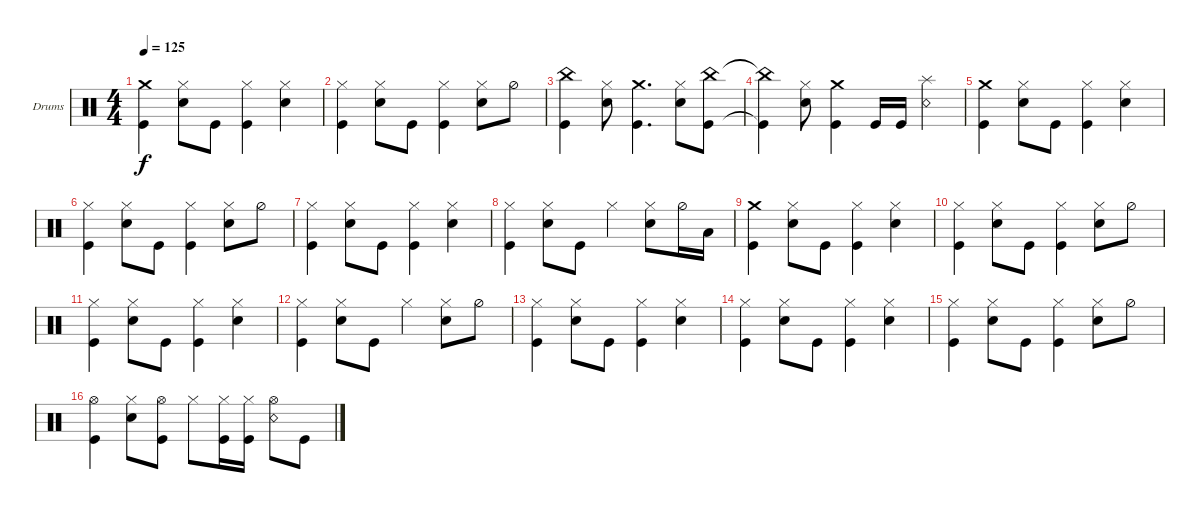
\bracketExtendMode groupsimilarinstruments
\firstSystemTrackNameOrientation horizontal
\otherSystemsTrackNameOrientation horizontal
\track ("Drumkit" "Drums") {instrument percussion}
\staff {score}
\articulation defaults
\ts (4 4)
\tempo 125
\clef neutral
\ks c
("Kick (hit)" "Crash medium (hit)").4{dy f} ("Snare (hit) 2" "Hi-Hat (closed)").8 "Kick (hit)".8 ("Hi-Hat (closed)" "Kick (hit)").4 ("Hi-Hat (closed)" "Snare (hit) 2").4 |
("Kick (hit)" "Hi-Hat (closed)").4 ("Snare (hit) 2" "Hi-Hat (closed)").8 "Kick (hit)".8 ("Hi-Hat (closed)" "Kick (hit)").4 ("Hi-Hat (closed)" "Snare (hit) 2").8 "Hi-Hat (half)".8 |
("Kick (hit)" "China (hit)").4 ("Snare (hit) 2" "Hi-Hat (closed)").8 ("Kick (hit)" "Crash medium (hit)").4{d} ("Hi-Hat (closed)" "Snare (hit) 2").8 ("Kick (hit)" "China (hit)").8 |
("Kick (hit)"{t} "China (hit)"{t}).4 ("Snare (hit) 2" "Hi-Hat (closed)").8 ("Kick (hit)" "Crash medium (hit)").4 "Kick (hit)".16 "Kick (hit)".16 ("Snare (rim shot)" "Splash (hit)").4 |
("Kick (hit)" "Crash medium (hit)").4 ("Snare (hit) 2" "Hi-Hat (closed)").8 "Kick (hit)".8 ("Hi-Hat (closed)" "Kick (hit)").4 ("Hi-Hat (closed)" "Snare (hit) 2").4 |
("Kick (hit)" "Hi-Hat (closed)").4 ("Snare (hit) 2" "Hi-Hat (closed)").8 "Kick (hit)".8 ("Hi-Hat (closed)" "Kick (hit)").4 ("Hi-Hat (closed)" "Snare (hit) 2").8 "Hi-Hat (half)".8 |
("Kick (hit)" "Hi-Hat (closed)").4 ("Snare (hit) 2" "Hi-Hat (closed)").8 "Kick (hit)".8 ("Hi-Hat (closed)" "Kick (hit)").4 ("Hi-Hat (closed)" "Snare (hit) 2").4 |
("Kick (hit)" "Hi-Hat (closed)").4 ("Snare (hit) 2" "Hi-Hat (closed)").8 "Kick (hit)".8 "Hi-Hat (closed)".4 ("Hi-Hat (closed)" "Snare (hit) 2").8 "Hi-Hat (half)".16 "Low Tom (hit)".16 |
("Kick (hit)" "Crash medium (hit)").4 ("Snare (hit) 2" "Hi-Hat (closed)").8 "Kick (hit)".8 ("Hi-Hat (closed)" "Kick (hit)").4 ("Hi-Hat (closed)" "Snare (hit) 2").4 |
("Kick (hit)" "Hi-Hat (closed)").4 ("Snare (hit) 2" "Hi-Hat (closed)").8 "Kick (hit)".8 ("Hi-Hat (closed)" "Kick (hit)").4 ("Hi-Hat (closed)" "Snare (hit) 2").8 "Hi-Hat (half)".8 |
("Kick (hit)" "Hi-Hat (closed)").4 ("Snare (hit) 2" "Hi-Hat (closed)").8 "Kick (hit)".8 ("Hi-Hat (closed)" "Kick (hit)").4 ("Hi-Hat (closed)" "Snare (hit) 2").4 |
("Kick (hit)" "Hi-Hat (closed)").4 ("Snare (hit) 2" "Hi-Hat (closed)").8 "Kick (hit)".8 "Hi-Hat (closed)".4 ("Hi-Hat (closed)" "Snare (hit) 2").8 "Hi-Hat (half)".8 |
("Kick (hit)" "Hi-Hat (closed)").4 ("Snare (hit) 2" "Hi-Hat (closed)").8 "Kick (hit)".8 ("Hi-Hat (closed)" "Kick (hit)").4 ("Hi-Hat (closed)" "Snare (hit) 2").4 |
("Kick (hit)" "Hi-Hat (closed)").4 ("Snare (hit) 2" "Hi-Hat (closed)").8 "Kick (hit)".8 ("Hi-Hat (closed)" "Kick (hit)").4 ("Hi-Hat (closed)" "Snare (hit) 2").4 |
("Kick (hit)" "Hi-Hat (closed)").4 ("Snare (hit) 2" "Hi-Hat (closed)").8 "Kick (hit)".8 ("Hi-Hat (closed)" "Kick (hit)").4 ("Hi-Hat (closed)" "Snare (hit) 2").8 "Hi-Hat (half)".8 |
("Kick (hit)" "Hi-Hat (open)").4 ("Snare (hit) 2" "Hi-Hat (closed)").8 ("Kick (hit)" "Hi-Hat (open)").8 "Hi-Hat (closed)".8 ("Hi-Hat (closed)" "Kick (hit)").16 ("Hi-Hat (closed)" "Kick (hit)").16 ("Hi-Hat (open)" "Snare (rim shot)").8 "Kick (hit)".8
